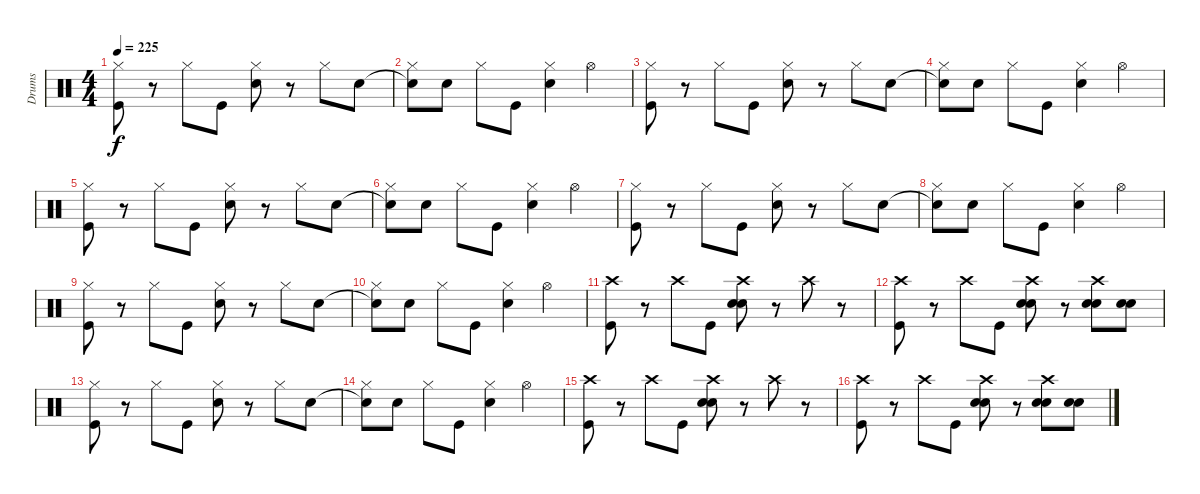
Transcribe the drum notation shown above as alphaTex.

\track ("Drums" "Drums") {instrument percussion}
\staff {score}
\articulation defaults
\ts (4 4)
\tempo 225
\clef neutral
\ks c
("Kick (hit)" "Hi-Hat (closed)").8{dy f} r.8 "Hi-Hat (closed)".8 "Kick (hit)".8 ("Electric Snare (hit)" "Hi-Hat (closed)").8 r.8 "Hi-Hat (closed)".8 "Electric Snare (hit)".8 |
("Electric Snare (hit)"{t} "Hi-Hat (closed)").8 "Electric Snare (hit)".8 "Hi-Hat (closed)".8 "Kick (hit)".8 ("Electric Snare (hit)" "Hi-Hat (closed)").4 "Hi-Hat (open)".4 |
("Kick (hit)" "Hi-Hat (closed)").8 r.8 "Hi-Hat (closed)".8 "Kick (hit)".8 ("Electric Snare (hit)" "Hi-Hat (closed)").8 r.8 "Hi-Hat (closed)".8 "Electric Snare (hit)".8 |
("Electric Snare (hit)"{t} "Hi-Hat (closed)").8 "Electric Snare (hit)".8 "Hi-Hat (closed)".8 "Kick (hit)".8 ("Electric Snare (hit)" "Hi-Hat (closed)").4 "Hi-Hat (open)".4 |
("Kick (hit)" "Hi-Hat (closed)").8 r.8 "Hi-Hat (closed)".8 "Kick (hit)".8 ("Electric Snare (hit)" "Hi-Hat (closed)").8 r.8 "Hi-Hat (closed)".8 "Electric Snare (hit)".8 |
("Electric Snare (hit)"{t} "Hi-Hat (closed)").8 "Electric Snare (hit)".8 "Hi-Hat (closed)".8 "Kick (hit)".8 ("Electric Snare (hit)" "Hi-Hat (closed)").4 "Hi-Hat (open)".4 |
("Kick (hit)" "Hi-Hat (closed)").8 r.8 "Hi-Hat (closed)".8 "Kick (hit)".8 ("Electric Snare (hit)" "Hi-Hat (closed)").8 r.8 "Hi-Hat (closed)".8 "Electric Snare (hit)".8 |
("Electric Snare (hit)"{t} "Hi-Hat (closed)").8 "Electric Snare (hit)".8 "Hi-Hat (closed)".8 "Kick (hit)".8 ("Electric Snare (hit)" "Hi-Hat (closed)").4 "Hi-Hat (open)".4 |
("Kick (hit)" "Hi-Hat (closed)").8 r.8 "Hi-Hat (closed)".8 "Kick (hit)".8 ("Electric Snare (hit)" "Hi-Hat (closed)").8 r.8 "Hi-Hat (closed)".8 "Electric Snare (hit)".8 |
("Electric Snare (hit)"{t} "Hi-Hat (closed)").8 "Electric Snare (hit)".8 "Hi-Hat (closed)".8 "Kick (hit)".8 ("Electric Snare (hit)" "Hi-Hat (closed)").4 "Hi-Hat (open)".4 |
("Kick (hit)" "Crash high (hit)").8 r.8 "Crash high (hit)".8 "Kick (hit)".8 ("Electric Snare (hit)" "Electric Snare (hit)" "Crash high (hit)").8 r.8 "Crash high (hit)".8 r.8 |
("Kick (hit)" "Crash high (hit)").8 r.8 "Crash high (hit)".8 "Kick (hit)".8 ("Electric Snare (hit)" "Electric Snare (hit)" "Crash high (hit)").8 r.8 ("Electric Snare (hit)" "Electric Snare (hit)" "Crash high (hit)").8 ("Electric Snare (hit)" "Electric Snare (hit)").8 |
("Kick (hit)" "Hi-Hat (closed)").8 r.8 "Hi-Hat (closed)".8 "Kick (hit)".8 ("Electric Snare (hit)" "Hi-Hat (closed)").8 r.8 "Hi-Hat (closed)".8 "Electric Snare (hit)".8 |
("Electric Snare (hit)"{t} "Hi-Hat (closed)").8 "Electric Snare (hit)".8 "Hi-Hat (closed)".8 "Kick (hit)".8 ("Electric Snare (hit)" "Hi-Hat (closed)").4 "Hi-Hat (open)".4 |
("Kick (hit)" "Crash high (hit)").8 r.8 "Crash high (hit)".8 "Kick (hit)".8 ("Electric Snare (hit)" "Electric Snare (hit)" "Crash high (hit)").8 r.8 "Crash high (hit)".8 r.8 |
("Kick (hit)" "Crash high (hit)").8 r.8 "Crash high (hit)".8 "Kick (hit)".8 ("Electric Snare (hit)" "Electric Snare (hit)" "Crash high (hit)").8 r.8 ("Electric Snare (hit)" "Electric Snare (hit)" "Crash high (hit)").8 ("Electric Snare (hit)" "Electric Snare (hit)").8
